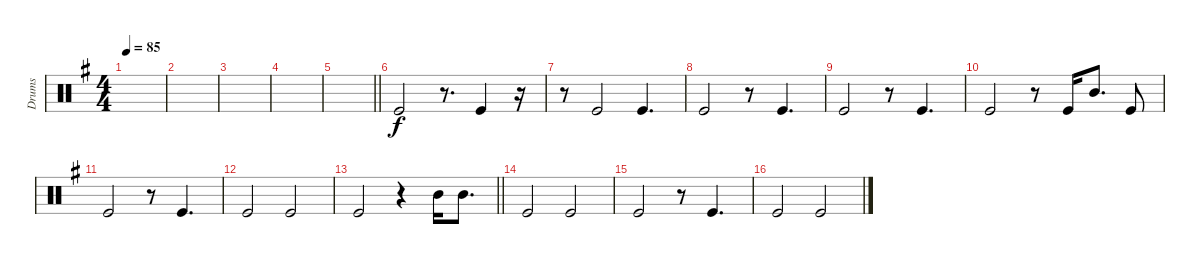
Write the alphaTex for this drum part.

\track ("Drums" "Drums") {instrument percussion}
\staff {score}
\articulation defaults
\ts (4 4)
\tempo 85
\clef neutral
\ks eminor
|
|
|
|
\barLineRight lightlight
|
"Kick (hit)".2 r.8{d} "Kick (hit)".4 r.16 |
r.8 "Kick (hit)".2 "Kick (hit)".4{d} |
"Kick (hit)".2 r.8 "Kick (hit)".4{d} |
"Kick (hit)".2 r.8 "Kick (hit)".4{d} |
"Kick (hit)".2 r.8 "Kick (hit)".16 "Mid Tom (hit)".8{d} "Kick (hit)".8 |
"Kick (hit)".2 r.8 "Kick (hit)".4{d} |
"Kick (hit)".2 "Kick (hit)".2 |
\barLineRight lightlight "Kick (hit)".2
r.4 "Mid Tom (hit)".16 "Mid Tom (hit)".8{d} |
"Kick (hit)".2 "Kick (hit)".2 |
"Kick (hit)".2 r.8 "Kick (hit)".4{d} |
"Kick (hit)".2 "Kick (hit)".2
